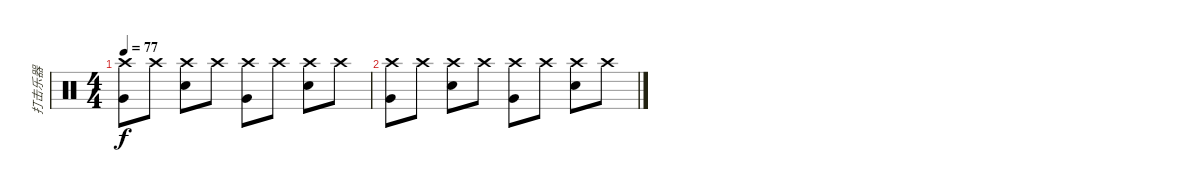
\track ("打击乐器" "打击乐器") {instrument percussion}
\staff {score}
\articulation defaults
\ts (4 4)
\tempo 77
\clef neutral
\ks c
("Crash high (hit)" "Very Low Tom (hit)").8{dy f} "Crash high (hit)".8 ("Crash high (hit)" "Snare (hit) 2").8 "Crash high (hit)".8 ("Crash high (hit)" "Very Low Tom (hit)").8 "Crash high (hit)".8 ("Crash high (hit)" "Snare (hit) 2").8 "Crash high (hit)".8 |
("Crash high (hit)" "Very Low Tom (hit)").8 "Crash high (hit)".8 ("Crash high (hit)" "Snare (hit) 2").8 "Crash high (hit)".8 ("Crash high (hit)" "Very Low Tom (hit)").8 "Crash high (hit)".8 ("Crash high (hit)" "Snare (hit) 2").8 "Crash high (hit)".8
